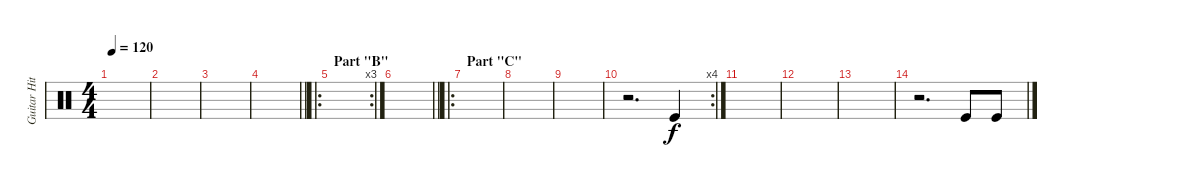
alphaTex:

\track ("Guitar Hit" "Guitar Hit") {instrument percussion}
\staff {score}
\articulation defaults
\ts (4 4)
\tempo 120
\clef neutral
\ks c
|
|
|
\barLineRight lightlight
|
\ro
\rc 3
\section ("" "Part \"B\"")
|
\barLineRight lightlight
|
\ro
\section ("" "Part \"C\"")
|
|
|
\rc 4
r.2{d} "Kick (hit)".4 |
|
|
|
r.2{d} "Kick (hit)".8 "Kick (hit)".8
